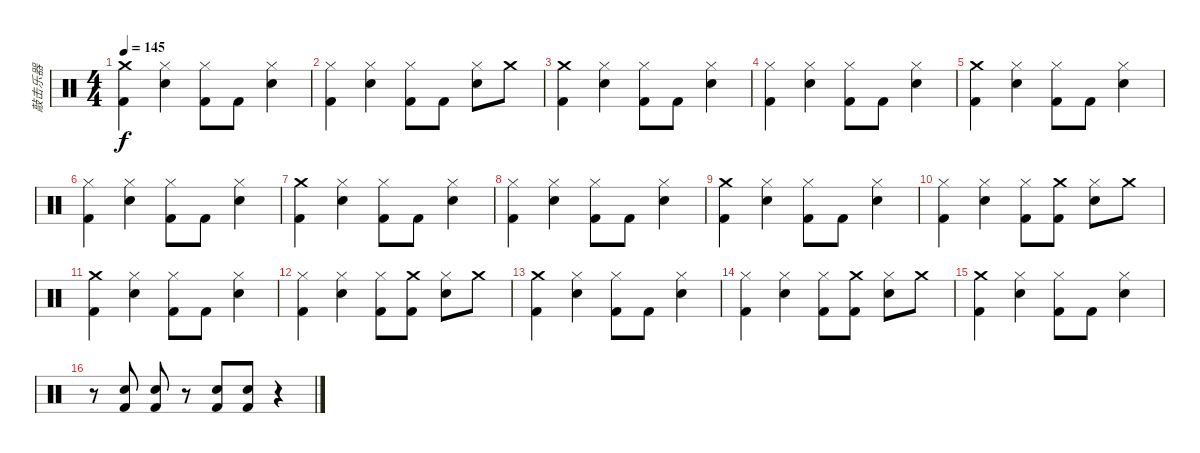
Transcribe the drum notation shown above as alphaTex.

\track ("敲击乐器" "敲击乐器") {instrument percussion}
\staff {score}
\articulation defaults
\ts (4 4)
\tempo 145
\clef neutral
\ks c
("Crash medium (hit)" "Kick (hit) 2").4{dy f} ("Hi-Hat (closed)" "Electric Snare (hit)").4 ("Hi-Hat (closed)" "Kick (hit) 2").8 "Kick (hit) 2".8 ("Hi-Hat (closed)" "Electric Snare (hit)").4 |
("Hi-Hat (closed)" "Kick (hit) 2").4 ("Hi-Hat (closed)" "Electric Snare (hit)").4 ("Hi-Hat (closed)" "Kick (hit) 2").8 "Kick (hit) 2".8 ("Hi-Hat (closed)" "Electric Snare (hit)").8 "Crash medium (hit)".8 |
("Crash medium (hit)" "Kick (hit) 2").4 ("Hi-Hat (closed)" "Electric Snare (hit)").4 ("Hi-Hat (closed)" "Kick (hit) 2").8 "Kick (hit) 2".8 ("Hi-Hat (closed)" "Electric Snare (hit)").4 |
("Hi-Hat (closed)" "Kick (hit) 2").4 ("Hi-Hat (closed)" "Electric Snare (hit)").4 ("Hi-Hat (closed)" "Kick (hit) 2").8 "Kick (hit) 2".8 ("Hi-Hat (closed)" "Electric Snare (hit)").4 |
("Crash medium (hit)" "Kick (hit) 2").4 ("Hi-Hat (closed)" "Electric Snare (hit)").4 ("Hi-Hat (closed)" "Kick (hit) 2").8 "Kick (hit) 2".8 ("Hi-Hat (closed)" "Electric Snare (hit)").4 |
("Hi-Hat (closed)" "Kick (hit) 2").4 ("Hi-Hat (closed)" "Electric Snare (hit)").4 ("Hi-Hat (closed)" "Kick (hit) 2").8 "Kick (hit) 2".8 ("Hi-Hat (closed)" "Electric Snare (hit)").4 |
("Crash medium (hit)" "Kick (hit) 2").4 ("Hi-Hat (closed)" "Electric Snare (hit)").4 ("Hi-Hat (closed)" "Kick (hit) 2").8 "Kick (hit) 2".8 ("Hi-Hat (closed)" "Electric Snare (hit)").4 |
("Hi-Hat (closed)" "Kick (hit) 2").4 ("Hi-Hat (closed)" "Electric Snare (hit)").4 ("Hi-Hat (closed)" "Kick (hit) 2").8 "Kick (hit) 2".8 ("Hi-Hat (closed)" "Electric Snare (hit)").4 |
("Crash medium (hit)" "Kick (hit) 2").4 ("Hi-Hat (closed)" "Electric Snare (hit)").4 ("Hi-Hat (closed)" "Kick (hit) 2").8 "Kick (hit) 2".8 ("Hi-Hat (closed)" "Electric Snare (hit)").4 |
("Hi-Hat (closed)" "Kick (hit) 2").4 ("Hi-Hat (closed)" "Electric Snare (hit)").4 ("Hi-Hat (closed)" "Kick (hit) 2").8 ("Crash medium (hit)" "Kick (hit) 2").8 ("Hi-Hat (closed)" "Electric Snare (hit)").8 "Crash medium (hit)".8 |
("Crash medium (hit)" "Kick (hit) 2").4 ("Hi-Hat (closed)" "Electric Snare (hit)").4 ("Hi-Hat (closed)" "Kick (hit) 2").8 "Kick (hit) 2".8 ("Hi-Hat (closed)" "Electric Snare (hit)").4 |
("Hi-Hat (closed)" "Kick (hit) 2").4 ("Hi-Hat (closed)" "Electric Snare (hit)").4 ("Hi-Hat (closed)" "Kick (hit) 2").8 ("Crash medium (hit)" "Kick (hit) 2").8 ("Hi-Hat (closed)" "Electric Snare (hit)").8 "Crash medium (hit)".8 |
("Crash medium (hit)" "Kick (hit) 2").4 ("Hi-Hat (closed)" "Electric Snare (hit)").4 ("Hi-Hat (closed)" "Kick (hit) 2").8 "Kick (hit) 2".8 ("Hi-Hat (closed)" "Electric Snare (hit)").4 |
("Hi-Hat (closed)" "Kick (hit) 2").4 ("Hi-Hat (closed)" "Electric Snare (hit)").4 ("Hi-Hat (closed)" "Kick (hit) 2").8 ("Crash medium (hit)" "Kick (hit) 2").8 ("Hi-Hat (closed)" "Electric Snare (hit)").8 "Crash medium (hit)".8 |
("Crash medium (hit)" "Kick (hit) 2").4 ("Hi-Hat (closed)" "Electric Snare (hit)").4 ("Hi-Hat (closed)" "Kick (hit) 2").8 "Kick (hit) 2".8 ("Hi-Hat (closed)" "Electric Snare (hit)").4 |
r.8 ("Electric Snare (hit)" "Kick (hit) 2").8 ("Electric Snare (hit)" "Kick (hit) 2").8 r.8 ("Electric Snare (hit)" "Kick (hit) 2").8 ("Electric Snare (hit)" "Kick (hit) 2").8 r.4
